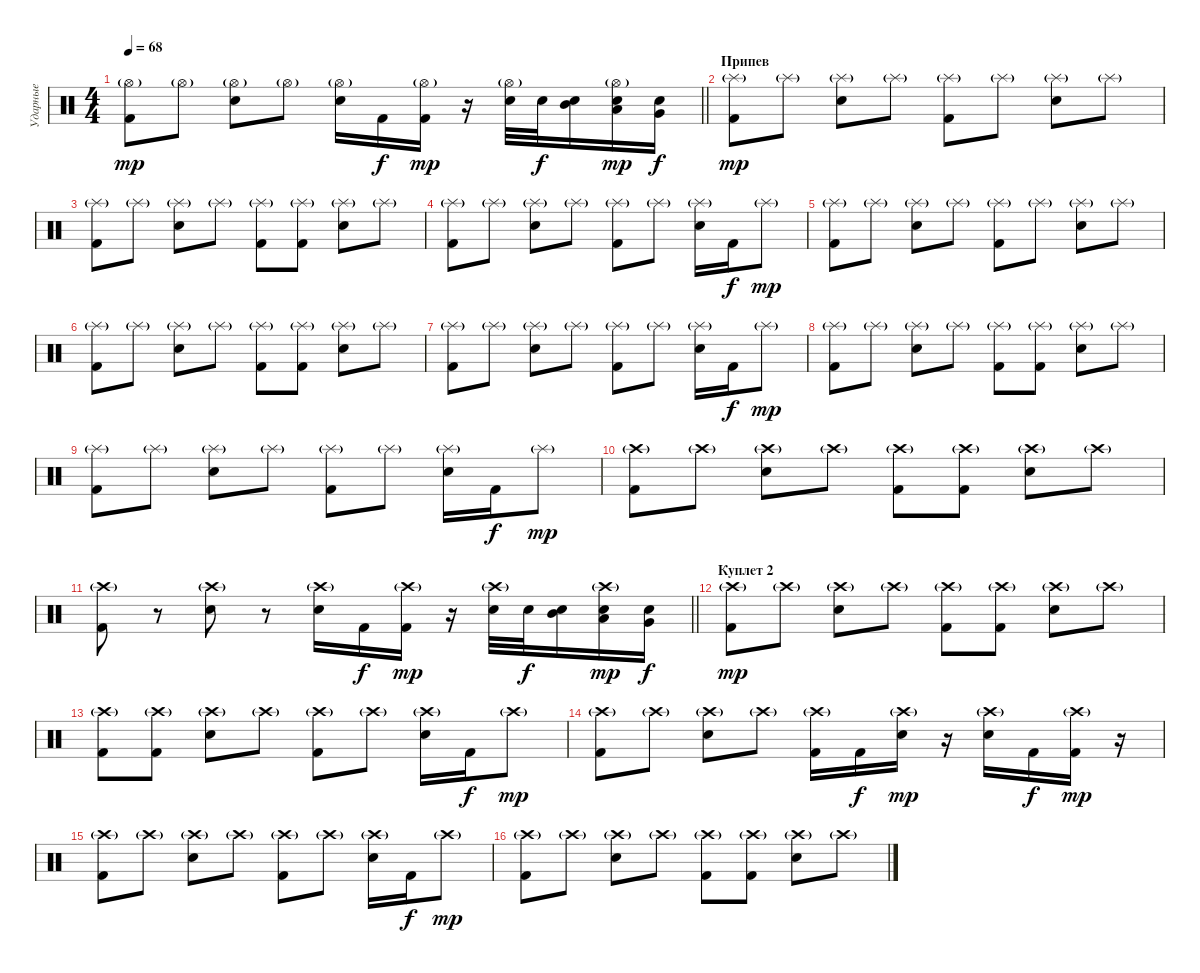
\track ("Ударные" "Ударные") {instrument percussion}
\staff {score}
\articulation defaults
\ts (4 4)
\tempo 68
\clef neutral
\barLineRight lightlight
\ks c
("Hi-Hat (open)"{g} "Kick (hit) 2").8{dy mp} "Hi-Hat (open)"{g}.8 ("Hi-Hat (open)"{g} "Snare (hit) 2").8 "Hi-Hat (open)"{g}.8 ("Hi-Hat (open)"{g} "Snare (hit) 2").16 "Kick (hit) 2".16{dy f} ("Hi-Hat (open)"{g} "Kick (hit) 2").16{dy mp} r.16 ("Hi-Hat (open)"{g} "Snare (hit) 2").32 "Snare (hit) 2".32{dy f} ("Mid Tom (hit)" "Snare (hit) 2").16 ("Hi-Hat (open)"{g} "Low Tom (hit)" "Snare (hit) 2").16{dy mp} ("Very Low Tom (hit)" "Snare (hit) 2").16{dy f} |
\section ("" "Припев")
("Splash (hit)"{g} "Kick (hit) 2").8{dy mp} "Splash (hit)"{g}.8 ("Splash (hit)"{g} "Snare (hit) 2").8 "Splash (hit)"{g}.8 ("Splash (hit)"{g} "Kick (hit) 2").8 "Splash (hit)"{g}.8 ("Splash (hit)"{g} "Snare (hit) 2").8 "Splash (hit)"{g}.8 |
("Splash (hit)"{g} "Kick (hit) 2").8 "Splash (hit)"{g}.8 ("Splash (hit)"{g} "Snare (hit) 2").8 "Splash (hit)"{g}.8 ("Splash (hit)"{g} "Kick (hit) 2").8 ("Splash (hit)"{g} "Kick (hit) 2").8 ("Splash (hit)"{g} "Snare (hit) 2").8 "Splash (hit)"{g}.8 |
("Splash (hit)"{g} "Kick (hit) 2").8 "Splash (hit)"{g}.8 ("Splash (hit)"{g} "Snare (hit) 2").8 "Splash (hit)"{g}.8 ("Splash (hit)"{g} "Kick (hit) 2").8 "Splash (hit)"{g}.8 ("Splash (hit)"{g} "Snare (hit) 2").16 "Kick (hit) 2".16{dy f} "Splash (hit)"{g}.8{dy mp} |
("Splash (hit)"{g} "Kick (hit) 2").8 "Splash (hit)"{g}.8 ("Splash (hit)"{g} "Snare (hit) 2").8 "Splash (hit)"{g}.8 ("Splash (hit)"{g} "Kick (hit) 2").8 "Splash (hit)"{g}.8 ("Splash (hit)"{g} "Snare (hit) 2").8 "Splash (hit)"{g}.8 |
("Splash (hit)"{g} "Kick (hit) 2").8 "Splash (hit)"{g}.8 ("Splash (hit)"{g} "Snare (hit) 2").8 "Splash (hit)"{g}.8 ("Splash (hit)"{g} "Kick (hit) 2").8 ("Splash (hit)"{g} "Kick (hit) 2").8 ("Splash (hit)"{g} "Snare (hit) 2").8 "Splash (hit)"{g}.8 |
("Splash (hit)"{g} "Kick (hit) 2").8 "Splash (hit)"{g}.8 ("Splash (hit)"{g} "Snare (hit) 2").8 "Splash (hit)"{g}.8 ("Splash (hit)"{g} "Kick (hit) 2").8 "Splash (hit)"{g}.8 ("Splash (hit)"{g} "Snare (hit) 2").16 "Kick (hit) 2".16{dy f} "Splash (hit)"{g}.8{dy mp} |
("Splash (hit)"{g} "Kick (hit) 2").8 "Splash (hit)"{g}.8 ("Splash (hit)"{g} "Snare (hit) 2").8 "Splash (hit)"{g}.8 ("Splash (hit)"{g} "Kick (hit) 2").8 ("Splash (hit)"{g} "Kick (hit) 2").8 ("Splash (hit)"{g} "Snare (hit) 2").8 "Splash (hit)"{g}.8 |
("Splash (hit)"{g} "Kick (hit) 2").8 "Splash (hit)"{g}.8 ("Splash (hit)"{g} "Snare (hit) 2").8 "Splash (hit)"{g}.8 ("Splash (hit)"{g} "Kick (hit) 2").8 "Splash (hit)"{g}.8 ("Splash (hit)"{g} "Snare (hit) 2").16 "Kick (hit) 2".16{dy f} "Splash (hit)"{g}.8{dy mp} |
("Crash high (hit)"{g} "Kick (hit) 2").8 "Crash high (hit)"{g}.8 ("Crash high (hit)"{g} "Snare (hit) 2").8 "Crash high (hit)"{g}.8 ("Crash high (hit)"{g} "Kick (hit) 2").8 ("Crash high (hit)"{g} "Kick (hit) 2").8 ("Crash high (hit)"{g} "Snare (hit) 2").8 "Crash high (hit)"{g}.8 |
\barLineRight lightlight
("Crash high (hit)"{g} "Kick (hit) 2").8 r.8 ("Crash high (hit)"{g} "Snare (hit) 2").8 r.8 ("Crash high (hit)"{g} "Snare (hit) 2").16 "Kick (hit) 2".16{dy f} ("Crash high (hit)"{g} "Kick (hit) 2").16{dy mp} r.16 ("Crash high (hit)"{g} "Snare (hit) 2").32 "Snare (hit) 2".32{dy f} ("Mid Tom (hit)" "Snare (hit) 2").16 ("Crash high (hit)"{g} "Low Tom (hit)" "Snare (hit) 2").16{dy mp} ("Very Low Tom (hit)" "Snare (hit) 2").16{dy f} |
\section ("" "Куплет 2")
("Crash high (hit)"{g} "Kick (hit) 2").8{dy mp} "Crash high (hit)"{g}.8 ("Crash high (hit)"{g} "Snare (hit) 2").8 "Crash high (hit)"{g}.8 ("Crash high (hit)"{g} "Kick (hit) 2").8 ("Crash high (hit)"{g} "Kick (hit) 2").8 ("Crash high (hit)"{g} "Snare (hit) 2").8 "Crash high (hit)"{g}.8 |
("Crash high (hit)"{g} "Kick (hit) 2").8 ("Crash high (hit)"{g} "Kick (hit) 2").8 ("Crash high (hit)"{g} "Snare (hit) 2").8 "Crash high (hit)"{g}.8 ("Crash high (hit)"{g} "Kick (hit) 2").8 "Crash high (hit)"{g}.8 ("Crash high (hit)"{g} "Snare (hit) 2").16 "Kick (hit) 2".16{dy f} "Crash high (hit)"{g}.8{dy mp} |
("Crash high (hit)"{g} "Kick (hit) 2").8 "Crash high (hit)"{g}.8 ("Crash high (hit)"{g} "Snare (hit) 2").8 "Crash high (hit)"{g}.8 ("Crash high (hit)"{g} "Kick (hit) 2").16 "Kick (hit) 2".16{dy f} ("Crash high (hit)"{g} "Snare (hit) 2").16{dy mp} r.16 ("Crash high (hit)"{g} "Snare (hit) 2").16 "Kick (hit) 2".16{dy f} ("Crash high (hit)"{g} "Kick (hit) 2").16{dy mp} r.16 |
("Crash high (hit)"{g} "Kick (hit) 2").8 "Crash high (hit)"{g}.8 ("Crash high (hit)"{g} "Snare (hit) 2").8 "Crash high (hit)"{g}.8 ("Crash high (hit)"{g} "Kick (hit) 2").8 "Crash high (hit)"{g}.8 ("Crash high (hit)"{g} "Snare (hit) 2").16 "Kick (hit) 2".16{dy f} "Crash high (hit)"{g}.8{dy mp} |
("Crash high (hit)"{g} "Kick (hit) 2").8 "Crash high (hit)"{g}.8 ("Crash high (hit)"{g} "Snare (hit) 2").8 "Crash high (hit)"{g}.8 ("Crash high (hit)"{g} "Kick (hit) 2").8 ("Crash high (hit)"{g} "Kick (hit) 2").8 ("Crash high (hit)"{g} "Snare (hit) 2").8 "Crash high (hit)"{g}.8
